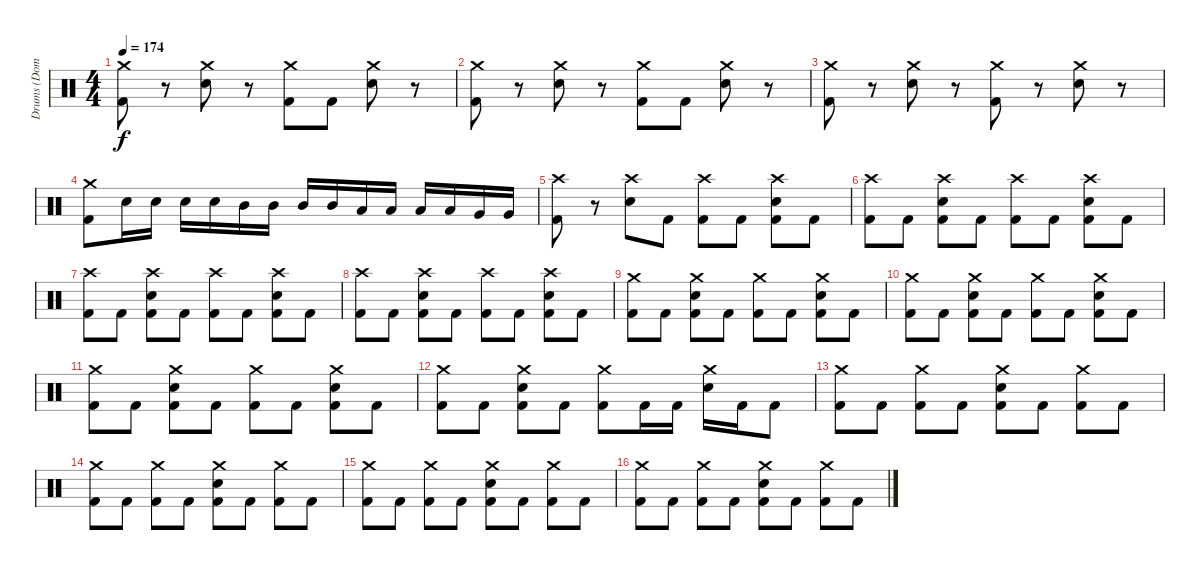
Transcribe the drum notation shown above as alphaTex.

\track ("Drums (Dominik)" "Drums (Dom") {instrument percussion}
\staff {score}
\articulation defaults
\ts (4 4)
\tempo 174
\clef neutral
\ks c
("Crash medium (hit)" "Kick (hit) 2").8{dy f} r.8 ("Crash medium (hit)" "Electric Snare (hit)").8 r.8 ("Crash medium (hit)" "Kick (hit) 2").8 "Kick (hit) 2".8 ("Crash medium (hit)" "Electric Snare (hit)").8 r.8 |
("Crash medium (hit)" "Kick (hit) 2").8 r.8 ("Crash medium (hit)" "Electric Snare (hit)").8 r.8 ("Crash medium (hit)" "Kick (hit) 2").8 "Kick (hit) 2".8 ("Crash medium (hit)" "Electric Snare (hit)").8 r.8 |
("Crash medium (hit)" "Kick (hit) 2").8 r.8 ("Crash medium (hit)" "Electric Snare (hit)").8 r.8 ("Crash medium (hit)" "Kick (hit) 2").8 r.8 ("Crash medium (hit)" "Electric Snare (hit)").8 r.8 |
("Crash medium (hit)" "Kick (hit) 2").8 "Electric Snare (hit)".16 "Electric Snare (hit)".16 "Electric Snare (hit)".16 "Electric Snare (hit)".16 "Mid Tom (hit)".16 "Mid Tom (hit)".16 "Mid Tom (hit)".16 "Mid Tom (hit)".16 "Low Tom (hit)".16 "Low Tom (hit)".16 "Low Tom (hit)".16 "Low Tom (hit)".16 "Very Low Tom (hit)".16 "Very Low Tom (hit)".16 |
("Crash high (hit)" "Kick (hit) 2").8 r.8 ("Crash high (hit)" "Electric Snare (hit)").8 "Kick (hit) 2".8 ("Crash high (hit)" "Kick (hit) 2").8 "Kick (hit) 2".8 ("Crash high (hit)" "Electric Snare (hit)" "Kick (hit) 2").8 "Kick (hit) 2".8 |
("Crash high (hit)" "Kick (hit) 2").8 "Kick (hit) 2".8 ("Crash high (hit)" "Electric Snare (hit)" "Kick (hit) 2").8 "Kick (hit) 2".8 ("Crash high (hit)" "Kick (hit) 2").8 "Kick (hit) 2".8 ("Crash high (hit)" "Electric Snare (hit)" "Kick (hit) 2").8 "Kick (hit) 2".8 |
("Crash high (hit)" "Kick (hit) 2").8 "Kick (hit) 2".8 ("Crash high (hit)" "Electric Snare (hit)" "Kick (hit) 2").8 "Kick (hit) 2".8 ("Crash high (hit)" "Kick (hit) 2").8 "Kick (hit) 2".8 ("Crash high (hit)" "Electric Snare (hit)" "Kick (hit) 2").8 "Kick (hit) 2".8 |
("Crash high (hit)" "Kick (hit) 2").8 "Kick (hit) 2".8 ("Crash high (hit)" "Electric Snare (hit)" "Kick (hit) 2").8 "Kick (hit) 2".8 ("Crash high (hit)" "Kick (hit) 2").8 "Kick (hit) 2".8 ("Crash high (hit)" "Electric Snare (hit)" "Kick (hit) 2").8 "Kick (hit) 2".8 |
("Crash medium (hit)" "Kick (hit) 2").8 "Kick (hit) 2".8 ("Crash medium (hit)" "Electric Snare (hit)" "Kick (hit) 2").8 "Kick (hit) 2".8 ("Crash medium (hit)" "Kick (hit) 2").8 "Kick (hit) 2".8 ("Crash medium (hit)" "Electric Snare (hit)" "Kick (hit) 2").8 "Kick (hit) 2".8 |
("Crash medium (hit)" "Kick (hit) 2").8 "Kick (hit) 2".8 ("Crash medium (hit)" "Electric Snare (hit)" "Kick (hit) 2").8 "Kick (hit) 2".8 ("Crash medium (hit)" "Kick (hit) 2").8 "Kick (hit) 2".8 ("Crash medium (hit)" "Electric Snare (hit)" "Kick (hit) 2").8 "Kick (hit) 2".8 |
("Crash medium (hit)" "Kick (hit) 2").8 "Kick (hit) 2".8 ("Crash medium (hit)" "Electric Snare (hit)" "Kick (hit) 2").8 "Kick (hit) 2".8 ("Crash medium (hit)" "Kick (hit) 2").8 "Kick (hit) 2".8 ("Crash medium (hit)" "Electric Snare (hit)" "Kick (hit) 2").8 "Kick (hit) 2".8 |
("Crash medium (hit)" "Kick (hit) 2").8 "Kick (hit) 2".8 ("Crash medium (hit)" "Electric Snare (hit)" "Kick (hit) 2").8 "Kick (hit) 2".8 ("Crash medium (hit)" "Kick (hit) 2").8 "Kick (hit) 2".16 "Kick (hit) 2".16 ("Crash medium (hit)" "Electric Snare (hit)").16 "Kick (hit) 2".16 "Kick (hit) 2".8 |
("Crash medium (hit)" "Kick (hit) 2").8 "Kick (hit) 2".8 ("Crash medium (hit)" "Kick (hit) 2").8 "Kick (hit) 2".8 ("Crash medium (hit)" "Electric Snare (hit)" "Kick (hit) 2").8 "Kick (hit) 2".8 ("Crash medium (hit)" "Kick (hit) 2").8 "Kick (hit) 2".8 |
("Crash medium (hit)" "Kick (hit) 2").8 "Kick (hit) 2".8 ("Crash medium (hit)" "Kick (hit) 2").8 "Kick (hit) 2".8 ("Crash medium (hit)" "Electric Snare (hit)" "Kick (hit) 2").8 "Kick (hit) 2".8 ("Crash medium (hit)" "Kick (hit) 2").8 "Kick (hit) 2".8 |
("Crash medium (hit)" "Kick (hit) 2").8 "Kick (hit) 2".8 ("Crash medium (hit)" "Kick (hit) 2").8 "Kick (hit) 2".8 ("Crash medium (hit)" "Electric Snare (hit)" "Kick (hit) 2").8 "Kick (hit) 2".8 ("Crash medium (hit)" "Kick (hit) 2").8 "Kick (hit) 2".8 |
("Crash medium (hit)" "Kick (hit) 2").8 "Kick (hit) 2".8 ("Crash medium (hit)" "Kick (hit) 2").8 "Kick (hit) 2".8 ("Crash medium (hit)" "Electric Snare (hit)" "Kick (hit) 2").8 "Kick (hit) 2".8 ("Crash medium (hit)" "Kick (hit) 2").8 "Kick (hit) 2".8
